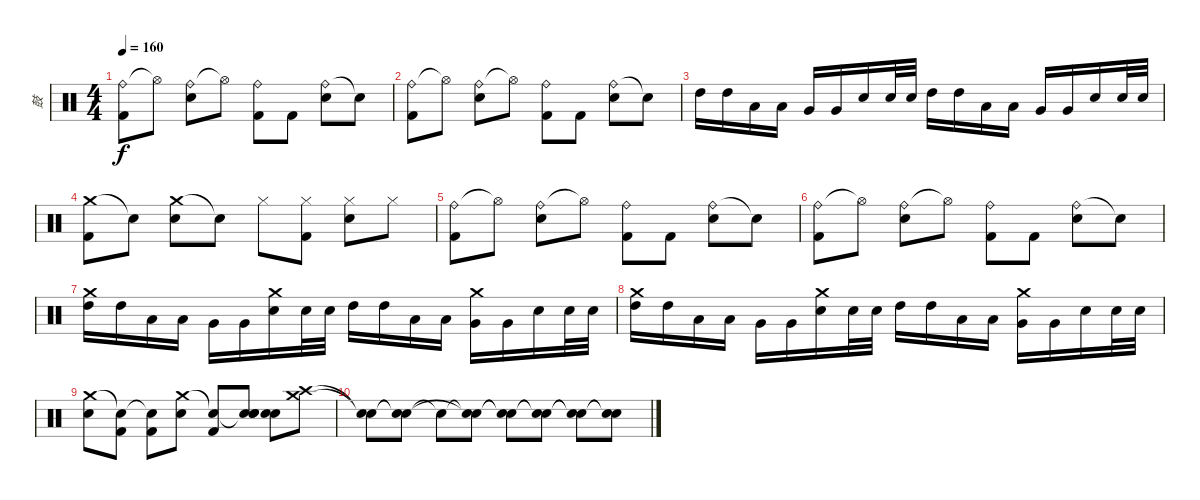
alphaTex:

\track ("鼓" "鼓") {instrument percussion}
\staff {score}
\articulation defaults
\ts (4 4)
\tempo 160
\clef neutral
\ks c
("Ride (bell)" "Kick (hit) 2").8{dy f} "Hi-Hat (open)"{t}.8 ("Ride (bell)" "Electric Snare (hit)").8 "Hi-Hat (open)"{t}.8 ("Ride (bell)" "Kick (hit) 2").8 "Kick (hit) 2".8 ("Ride (bell)" "Electric Snare (hit)").8 "Snare (hit)"{t}.8 |
("Ride (bell)" "Kick (hit) 2").8 "Hi-Hat (open)"{t}.8 ("Ride (bell)" "Electric Snare (hit)").8 "Hi-Hat (open)"{t}.8 ("Ride (bell)" "Kick (hit) 2").8 "Kick (hit) 2".8 ("Ride (bell)" "Electric Snare (hit)").8 "Snare (hit)"{t}.8 |
"High Tom (hit)".16 "High Tom (hit)".16 "Low Tom (hit)".16 "Low Tom (hit)".16 "Very Low Tom (hit)".16 "Very Low Tom (hit)".16 "Electric Snare (hit)".16 "Electric Snare (hit)".32 "Electric Snare (hit)".32 "High Tom (hit)".16 "High Tom (hit)".16 "Low Tom (hit)".16 "Low Tom (hit)".16 "Very Low Tom (hit)".16 "Very Low Tom (hit)".16 "Electric Snare (hit)".16 "Electric Snare (hit)".32 "Electric Snare (hit)".32 |
("Crash medium (hit)" "Kick (hit) 2").8 "Snare (hit)"{t}.8 ("Crash medium (hit)" "Electric Snare (hit)").8 "Snare (hit)"{t}.8 "Hi-Hat (closed)".8 ("Hi-Hat (closed)" "Kick (hit) 2").8 ("Hi-Hat (closed)" "Electric Snare (hit)").8 "Hi-Hat (closed)".8 |
("Ride (bell)" "Kick (hit) 2").8 "Hi-Hat (open)"{t}.8 ("Ride (bell)" "Electric Snare (hit)").8 "Hi-Hat (open)"{t}.8 ("Ride (bell)" "Kick (hit) 2").8 "Kick (hit) 2".8 ("Ride (bell)" "Electric Snare (hit)").8 "Snare (hit)"{t}.8 |
("Ride (bell)" "Kick (hit) 2").8 "Hi-Hat (open)"{t}.8 ("Ride (bell)" "Electric Snare (hit)").8 "Hi-Hat (open)"{t}.8 ("Ride (bell)" "Kick (hit) 2").8 "Kick (hit) 2".8 ("Ride (bell)" "Electric Snare (hit)").8 "Snare (hit)"{t}.8 |
("Crash medium (hit)" "High Tom (hit)").16 "High Tom (hit)".16 "Low Tom (hit)".16 "Low Tom (hit)".16 "Very Low Tom (hit)".16 "Very Low Tom (hit)".16 ("Crash medium (hit)" "Electric Snare (hit)").16 "Electric Snare (hit)".32 "Electric Snare (hit)".32 "High Tom (hit)".16 "High Tom (hit)".16 "Low Tom (hit)".16 "Low Tom (hit)".16 ("Crash medium (hit)" "Very Low Tom (hit)").16 "Very Low Tom (hit)".16 "Electric Snare (hit)".16 "Electric Snare (hit)".32 "Electric Snare (hit)".32 |
("Crash medium (hit)" "High Tom (hit)").16 "High Tom (hit)".16 "Low Tom (hit)".16 "Low Tom (hit)".16 "Very Low Tom (hit)".16 "Very Low Tom (hit)".16 ("Crash medium (hit)" "Electric Snare (hit)").16 "Electric Snare (hit)".32 "Electric Snare (hit)".32 "High Tom (hit)".16 "High Tom (hit)".16 "Low Tom (hit)".16 "Low Tom (hit)".16 ("Crash medium (hit)" "Very Low Tom (hit)").16 "Very Low Tom (hit)".16 "Electric Snare (hit)".16 "Electric Snare (hit)".32 "Electric Snare (hit)".32 |
("Crash medium (hit)" "Electric Snare (hit)").8 ("Snare (hit)"{t} "Kick (hit) 2").8 ("Snare (hit)"{t} "Kick (hit) 2").8 ("Crash medium (hit)" "Electric Snare (hit)").8 ("Snare (hit)"{t} "Kick (hit) 2").8 ("Snare (hit)"{t} "Electric Snare (hit)" "Electric Snare (hit)").8 ("Electric Snare (hit)" "Electric Snare (hit)").8 ("Crash medium (hit)" "Crash high (hit)").8 |
("Snare (hit)"{t} "Snare (hit)"{t}).8 ("Snare (hit)"{t} "Snare (hit)"{t}).8 "Snare (hit)"{t}.8 ("Snare (hit)"{t} "Snare (hit)"{t}).8 ("Snare (hit)"{t} "Snare (hit)"{t}).8 ("Snare (hit)"{t} "Snare (hit)"{t}).8 ("Snare (hit)"{t} "Snare (hit)"{t}).8 ("Snare (hit)"{t} "Snare (hit)"{t}).8
